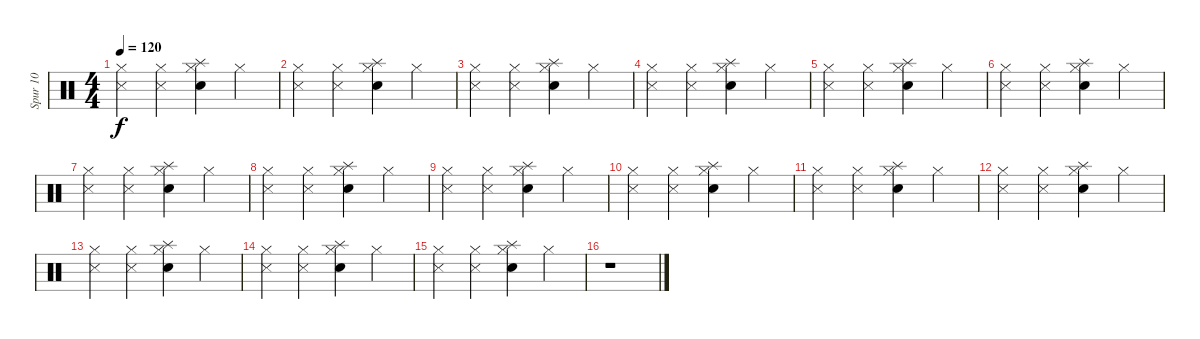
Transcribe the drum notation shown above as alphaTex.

\track ("Spur 10" "Spur 10") {instrument percussion}
\staff {score}
\articulation defaults
\ts (4 4)
\tempo 120
\clef neutral
\ks c
("Metronome (hit)" "Hi-Hat (closed)").4{dy f} ("Metronome (hit)" "Hi-Hat (closed)").4 ("Splash (hit)" "Electric Snare (hit)" "Hi-Hat (closed)").4 "Hi-Hat (closed)".4 |
("Metronome (hit)" "Hi-Hat (closed)").4 ("Metronome (hit)" "Hi-Hat (closed)").4 ("Splash (hit)" "Electric Snare (hit)" "Hi-Hat (closed)").4 "Hi-Hat (closed)".4 |
("Metronome (hit)" "Hi-Hat (closed)").4 ("Metronome (hit)" "Hi-Hat (closed)").4 ("Splash (hit)" "Electric Snare (hit)" "Hi-Hat (closed)").4 "Hi-Hat (closed)".4 |
("Metronome (hit)" "Hi-Hat (closed)").4 ("Metronome (hit)" "Hi-Hat (closed)").4 ("Splash (hit)" "Electric Snare (hit)" "Hi-Hat (closed)").4 "Hi-Hat (closed)".4 |
("Metronome (hit)" "Hi-Hat (closed)").4 ("Metronome (hit)" "Hi-Hat (closed)").4 ("Splash (hit)" "Electric Snare (hit)" "Hi-Hat (closed)").4 "Hi-Hat (closed)".4 |
("Metronome (hit)" "Hi-Hat (closed)").4 ("Metronome (hit)" "Hi-Hat (closed)").4 ("Splash (hit)" "Electric Snare (hit)" "Hi-Hat (closed)").4 "Hi-Hat (closed)".4 |
("Metronome (hit)" "Hi-Hat (closed)").4 ("Metronome (hit)" "Hi-Hat (closed)").4 ("Splash (hit)" "Electric Snare (hit)" "Hi-Hat (closed)").4 "Hi-Hat (closed)".4 |
("Metronome (hit)" "Hi-Hat (closed)").4 ("Metronome (hit)" "Hi-Hat (closed)").4 ("Splash (hit)" "Electric Snare (hit)" "Hi-Hat (closed)").4 "Hi-Hat (closed)".4 |
("Metronome (hit)" "Hi-Hat (closed)").4 ("Metronome (hit)" "Hi-Hat (closed)").4 ("Splash (hit)" "Electric Snare (hit)" "Hi-Hat (closed)").4 "Hi-Hat (closed)".4 |
("Metronome (hit)" "Hi-Hat (closed)").4 ("Metronome (hit)" "Hi-Hat (closed)").4 ("Splash (hit)" "Electric Snare (hit)" "Hi-Hat (closed)").4 "Hi-Hat (closed)".4 |
("Metronome (hit)" "Hi-Hat (closed)").4 ("Metronome (hit)" "Hi-Hat (closed)").4 ("Splash (hit)" "Electric Snare (hit)" "Hi-Hat (closed)").4 "Hi-Hat (closed)".4 |
("Metronome (hit)" "Hi-Hat (closed)").4{volume 11} ("Metronome (hit)" "Hi-Hat (closed)").4{volume 11} ("Splash (hit)" "Electric Snare (hit)" "Hi-Hat (closed)").4{volume 10} "Hi-Hat (closed)".4{volume 9} |
("Metronome (hit)" "Hi-Hat (closed)").4{volume 9} ("Metronome (hit)" "Hi-Hat (closed)").4{volume 8} ("Splash (hit)" "Electric Snare (hit)" "Hi-Hat (closed)").4{volume 7} "Hi-Hat (closed)".4{volume 6} |
("Metronome (hit)" "Hi-Hat (closed)").4{volume 6} ("Metronome (hit)" "Hi-Hat (closed)").4{volume 5} ("Splash (hit)" "Electric Snare (hit)" "Hi-Hat (closed)").4{volume 4} "Hi-Hat (closed)".4{volume 4} |
("Metronome (hit)" "Hi-Hat (closed)").4{volume 3} ("Metronome (hit)" "Hi-Hat (closed)").4{volume 2} ("Splash (hit)" "Electric Snare (hit)" "Hi-Hat (closed)").4{volume 2} "Hi-Hat (closed)".4{volume 1} |
r.1
